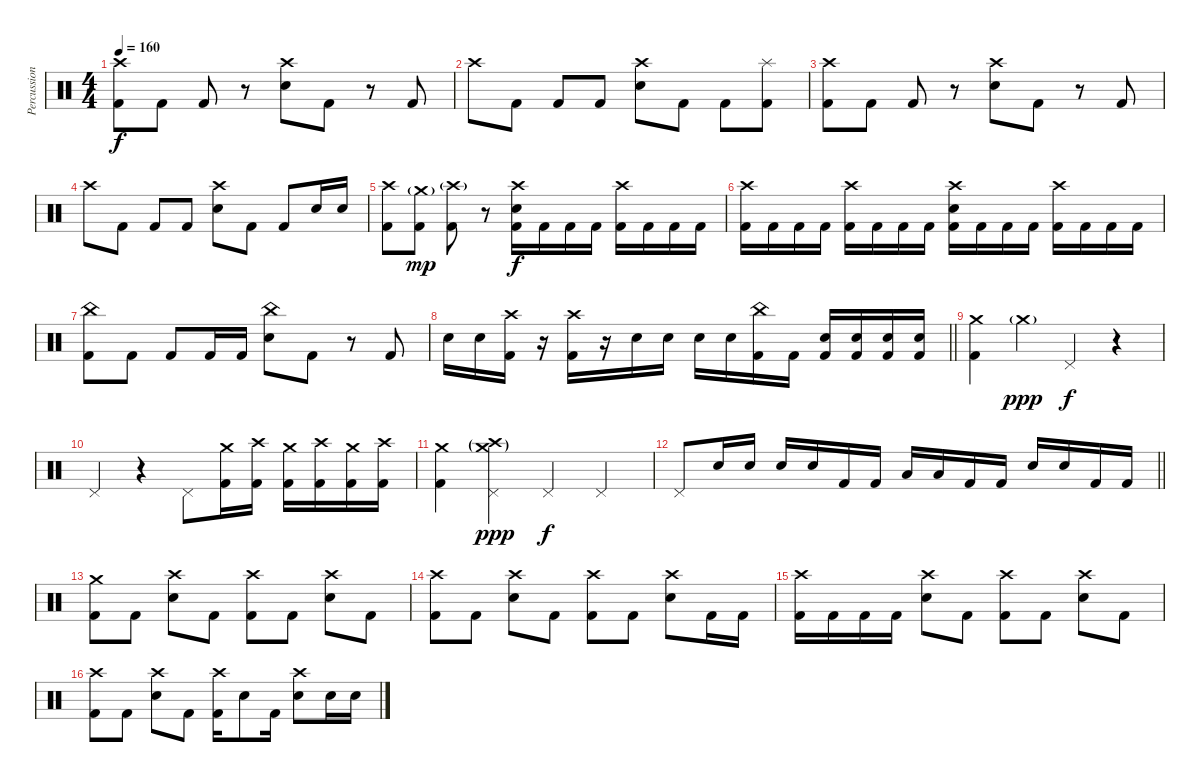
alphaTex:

\track ("Percussion" "Percussion") {instrument percussion}
\staff {score}
\articulation defaults
\ts (4 4)
\tempo 160
\clef neutral
\ks c
("Crash high (hit)" "Kick (hit) 2").8{dy f} "Kick (hit) 2".8 "Kick (hit) 2".8 r.8 ("Crash high (hit)" "Snare (hit) 2").8 "Kick (hit) 2".8 r.8 "Kick (hit) 2".8 |
"Crash high (hit)".8 "Kick (hit) 2".8 "Kick (hit) 2".8 "Kick (hit) 2".8 ("Crash high (hit)" "Snare (hit) 2").8 "Kick (hit) 2".8 "Kick (hit) 2".8 ("Splash (hit)" "Kick (hit) 2").8 |
("Crash high (hit)" "Kick (hit) 2").8 "Kick (hit) 2".8 "Kick (hit) 2".8 r.8 ("Crash high (hit)" "Snare (hit) 2").8 "Kick (hit) 2".8 r.8 "Kick (hit) 2".8 |
"Crash high (hit)".8 "Kick (hit) 2".8 "Kick (hit) 2".8 "Kick (hit) 2".8 ("Crash high (hit)" "Snare (hit) 2").8 "Kick (hit) 2".8 "Kick (hit) 2".8 "Snare (hit) 2".16 "Snare (hit) 2".16 |
("Crash high (hit)" "Kick (hit) 2").8 ("Crash medium (hit)"{g} "Kick (hit) 2").8{dy mp} ("Crash high (hit)"{g} "Kick (hit) 2").8 r.8 ("Crash high (hit)" "Snare (hit) 2" "Kick (hit) 2").16{dy f} "Kick (hit) 2".16 "Kick (hit) 2".16 "Kick (hit) 2".16 ("Crash high (hit)" "Kick (hit) 2").16 "Kick (hit) 2".16 "Kick (hit) 2".16 "Kick (hit) 2".16 |
("Crash high (hit)" "Kick (hit) 2").16 "Kick (hit) 2".16 "Kick (hit) 2".16 "Kick (hit) 2".16 ("Crash high (hit)" "Kick (hit) 2").16 "Kick (hit) 2".16 "Kick (hit) 2".16 "Kick (hit) 2".16 ("Crash high (hit)" "Snare (hit) 2" "Kick (hit) 2").16 "Kick (hit) 2".16 "Kick (hit) 2".16 "Kick (hit) 2".16 ("Crash high (hit)" "Kick (hit) 2").16 "Kick (hit) 2".16 "Kick (hit) 2".16 "Kick (hit) 2".16 |
("China (hit)" "Kick (hit) 2").8 "Kick (hit) 2".8 "Kick (hit) 2".8 "Kick (hit) 2".16 "Kick (hit) 2".16 ("China (hit)" "Snare (hit) 2").8 "Kick (hit) 2".8 r.8 "Kick (hit) 2".8 |
\barLineRight lightlight "Snare (hit) 2".16 "Snare (hit) 2".16
("Crash high (hit)" "Kick (hit) 2").16 r.16 ("Crash high (hit)" "Kick (hit) 2").16 r.16 "Snare (hit) 2".16 "Snare (hit) 2".16 "Snare (hit) 2".16 "Snare (hit) 2".16 ("China (hit)" "Kick (hit) 2").16 "Kick (hit) 2".16 ("Snare (hit) 2" "Kick (hit) 2").16 ("Snare (hit) 2" "Kick (hit) 2").16 ("Snare (hit) 2" "Kick (hit) 2").16 ("Snare (hit) 2" "Kick (hit) 2").16 |
\section ("" "")
("Crash medium (hit)" "Kick (hit) 2").4 "Crash medium (hit)"{g}.4{dy ppp} "Pedal Hi-Hat (hit)".4{dy f} r.4 |
"Pedal Hi-Hat (hit)".4 r.4 "Pedal Hi-Hat (hit)".8 ("Crash medium (hit)" "Kick (hit) 2").16 ("Crash high (hit)" "Kick (hit) 2").16 ("Crash medium (hit)" "Kick (hit) 2").16 ("Crash high (hit)" "Kick (hit) 2").16 ("Crash medium (hit)" "Kick (hit) 2").16 ("Crash high (hit)" "Kick (hit) 2").16 |
("Crash medium (hit)" "Kick (hit) 2").4 ("Crash medium (hit)"{g} "Pedal Hi-Hat (hit)" "Crash high (hit)"{g}).4{dy ppp} "Pedal Hi-Hat (hit)".4{dy f} "Pedal Hi-Hat (hit)".4 |
\barLineRight lightlight "Pedal Hi-Hat (hit)".8 "Snare (hit) 2".16 "Snare (hit) 2".16 "Snare (hit) 2".16 "Snare (hit) 2".16 "Kick (hit) 2".16 "Kick (hit) 2".16 "Low Tom (hit)".16 "Low Tom (hit)".16 "Kick (hit) 2".16 "Kick (hit) 2".16 "Snare (hit) 2".16 "Snare (hit) 2".16 "Kick (hit) 2".16 "Kick (hit) 2".16
|
\section ("" "")
("Crash medium (hit)" "Kick (hit) 2").8 "Kick (hit) 2".8 ("Crash high (hit)" "Snare (hit) 2").8 "Kick (hit) 2".8 ("Crash high (hit)" "Kick (hit) 2").8 "Kick (hit) 2".8 ("Crash high (hit)" "Snare (hit) 2").8 "Kick (hit) 2".8 |
("Crash high (hit)" "Kick (hit) 2").8 "Kick (hit) 2".8 ("Crash high (hit)" "Snare (hit) 2").8 "Kick (hit) 2".8 ("Crash high (hit)" "Kick (hit) 2").8 "Kick (hit) 2".8 ("Crash high (hit)" "Snare (hit) 2").8 "Kick (hit) 2".16 "Kick (hit) 2".16 |
("Crash high (hit)" "Kick (hit) 2").16 "Kick (hit) 2".16 "Kick (hit) 2".16 "Kick (hit) 2".16 ("Crash high (hit)" "Snare (hit) 2").8 "Kick (hit) 2".8 ("Crash high (hit)" "Kick (hit) 2").8 "Kick (hit) 2".8 ("Crash high (hit)" "Snare (hit) 2").8 "Kick (hit) 2".8 |
("Crash high (hit)" "Kick (hit) 2").8 "Kick (hit) 2".8 ("Crash high (hit)" "Snare (hit) 2").8 "Kick (hit) 2".8 ("Crash high (hit)" "Kick (hit) 2").16 "Snare (hit) 2".8 "Kick (hit) 2".16 ("Crash high (hit)" "Snare (hit) 2").8 "Snare (hit) 2".16 "Snare (hit) 2".16
